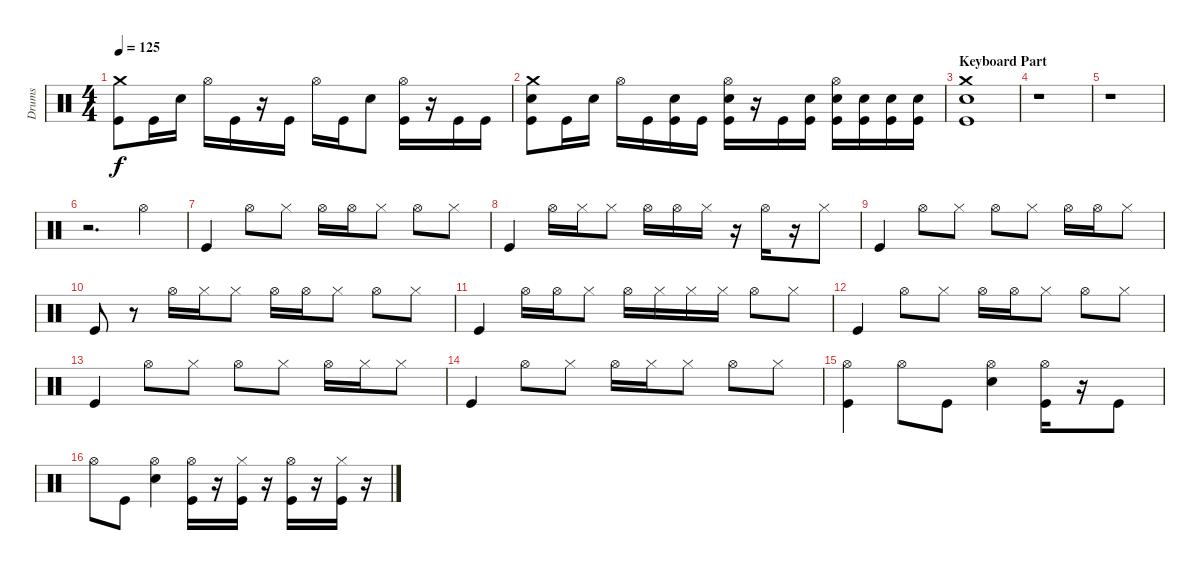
\track ("Drums" "Drums") {instrument percussion}
\staff {score}
\articulation defaults
\ts (4 4)
\tempo 125
\clef neutral
\ks c
("Crash medium (hit)" "Kick (hit)").8{dy f} "Kick (hit)".16 "Electric Snare (hit)".16 "Hi-Hat (open)".16 "Kick (hit)".16 r.16 "Kick (hit)".16 "Hi-Hat (open)".16 "Kick (hit)".16 "Electric Snare (hit)".8 ("Hi-Hat (open)" "Kick (hit)").16 r.16 "Kick (hit)".16 "Kick (hit)".16 |
("Crash medium (hit)" "Electric Snare (hit)" "Kick (hit)").8 "Kick (hit)".16 "Electric Snare (hit)".16 "Hi-Hat (open)".16 "Kick (hit)".16 ("Electric Snare (hit)" "Kick (hit)").16 "Kick (hit)".16 ("Hi-Hat (open)" "Electric Snare (hit)" "Kick (hit)").16 r.16 "Kick (hit)".16 ("Electric Snare (hit)" "Kick (hit)").16 ("Hi-Hat (open)" "Electric Snare (hit)" "Kick (hit)").16 ("Electric Snare (hit)" "Kick (hit)").16 ("Electric Snare (hit)" "Kick (hit)").16 ("Electric Snare (hit)" "Kick (hit)").16 |
\section ("" "Keyboard Part")
("Crash medium (hit)" "Electric Snare (hit)" "Kick (hit)").1 |
r.1 |
r.1 |
r.2{d} "Hi-Hat (open)".4 |
"Kick (hit)".4 "Hi-Hat (open)".8 "Hi-Hat (closed)".8 "Hi-Hat (open)".16 "Hi-Hat (open)".16 "Hi-Hat (closed)".8 "Hi-Hat (open)".8 "Hi-Hat (closed)".8 |
"Kick (hit)".4 "Hi-Hat (open)".16 "Hi-Hat (closed)".16 "Hi-Hat (closed)".8 "Hi-Hat (open)".16 "Hi-Hat (open)".16 "Hi-Hat (closed)".16 r.16 "Hi-Hat (open)".16 r.16 "Hi-Hat (closed)".8 |
"Kick (hit)".4 "Hi-Hat (open)".8 "Hi-Hat (closed)".8 "Hi-Hat (open)".8 "Hi-Hat (closed)".8 "Hi-Hat (open)".16 "Hi-Hat (open)".16 "Hi-Hat (closed)".8 |
"Kick (hit)".8 r.8 "Hi-Hat (open)".16 "Hi-Hat (closed)".16 "Hi-Hat (closed)".8 "Hi-Hat (open)".16 "Hi-Hat (open)".16 "Hi-Hat (closed)".8 "Hi-Hat (open)".8 "Hi-Hat (closed)".8 |
"Kick (hit)".4 "Hi-Hat (open)".16 "Hi-Hat (open)".16 "Hi-Hat (closed)".8 "Hi-Hat (open)".16 "Hi-Hat (closed)".16 "Hi-Hat (closed)".16 "Hi-Hat (closed)".16 "Hi-Hat (open)".8 "Hi-Hat (closed)".8 |
"Kick (hit)".4 "Hi-Hat (open)".8 "Hi-Hat (closed)".8 "Hi-Hat (open)".16 "Hi-Hat (open)".16 "Hi-Hat (closed)".8 "Hi-Hat (open)".8 "Hi-Hat (closed)".8 |
"Kick (hit)".4 "Hi-Hat (open)".8 "Hi-Hat (closed)".8 "Hi-Hat (open)".8 "Hi-Hat (closed)".8 "Hi-Hat (open)".16 "Hi-Hat (closed)".16 "Hi-Hat (closed)".8 |
"Kick (hit)".4 "Hi-Hat (open)".8 "Hi-Hat (closed)".8 "Hi-Hat (open)".16 "Hi-Hat (closed)".16 "Hi-Hat (closed)".8 "Hi-Hat (open)".8 "Hi-Hat (closed)".8 |
("Hi-Hat (open)" "Kick (hit)").4 "Hi-Hat (open)".8 "Kick (hit)".8 ("Hi-Hat (open)" "Electric Snare (hit)").4 ("Hi-Hat (open)" "Kick (hit)").16 r.16 "Kick (hit)".8 |
"Hi-Hat (open)".8 "Kick (hit)".8 ("Hi-Hat (open)" "Electric Snare (hit)").4 ("Hi-Hat (open)" "Kick (hit)").16 r.16 ("Hi-Hat (closed)" "Kick (hit)").16 r.16 ("Hi-Hat (open)" "Kick (hit)").16 r.16 ("Hi-Hat (closed)" "Kick (hit)").16 r.16
